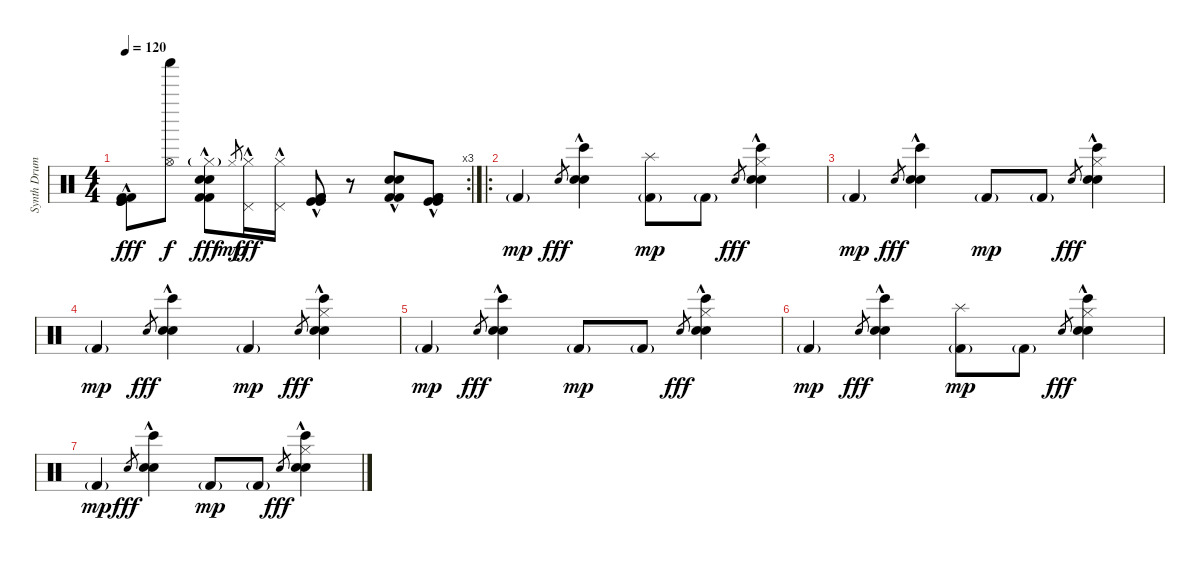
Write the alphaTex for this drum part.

\track ("Synth Drum" "Synth Drum") {instrument percussion}
\staff {score}
\articulation defaults
\rc 3
\ts (4 4)
\tempo 120
\clef neutral
\ks c
("Kick (hit)"{hac} "Kick (hit) 2"{hac} "Kick (hit)"{hac} "Kick (hit) 2"{hac}).8{dy fff} ("Shaker (hit)" "Hi-Hat (open)").8{dy f} ("Hi-Hat (closed)"{g} "Snare (hit) 2"{hac} "Electric Snare (hit)"{hac} "Kick (hit) 2"{hac} "Kick (hit) 2"{hac}).8{dy fff} "Hi-Hat (closed)"{h}.8{gr dy mp} ("Pedal Hi-Hat (hit)"{hac} "Hi-Hat (closed)"{hac}).16{dy fff} ("Pedal Hi-Hat (hit)"{hac} "Hi-Hat (closed)"{hac}).16 ("Kick (hit)"{hac} "Kick (hit)"{hac} "Kick (hit) 2"{hac} "Kick (hit) 2"{hac}).8 r.8 ("Snare (hit) 2"{hac} "Electric Snare (hit)"{hac} "Kick (hit) 2"{hac} "Kick (hit) 2"{hac}).8 ("Kick (hit)"{hac} "Kick (hit)"{hac} "Kick (hit) 2"{hac} "Kick (hit) 2"{hac}).8 |
\ro "Kick (hit) 2"{g}.4{dy mp} "Snare (hit)".8{gr dy fff}
("Electric Snare (hit)"{hac} "Bongo High (hit)"{hac} "Hand Clap (hit)"{hac}).4 ("Splash (hit)" "Kick (hit) 2"{g}).8{dy mp} "Kick (hit) 2"{g}.8 "Snare (hit)".8{gr dy fff} ("Hi-Hat (closed)" "Electric Snare (hit)"{hac} "Bongo High (hit)"{hac} "Hand Clap (hit)"{hac}).4 |
"Kick (hit) 2"{g}.4{dy mp} "Snare (hit)".8{gr dy fff} ("Electric Snare (hit)"{hac} "Bongo High (hit)"{hac} "Hand Clap (hit)"{hac}).4 "Kick (hit) 2"{g}.8{dy mp} "Kick (hit) 2"{g}.8 "Snare (hit)".8{gr dy fff} ("Hi-Hat (closed)" "Electric Snare (hit)"{hac} "Bongo High (hit)"{hac} "Hand Clap (hit)"{hac}).4 |
"Kick (hit) 2"{g}.4{dy mp} "Snare (hit)".8{gr dy fff} ("Electric Snare (hit)"{hac} "Bongo High (hit)"{hac} "Hand Clap (hit)"{hac}).4 "Kick (hit) 2"{g}.4{dy mp} "Snare (hit)".8{gr dy fff} ("Hi-Hat (closed)" "Electric Snare (hit)"{hac} "Bongo High (hit)"{hac} "Hand Clap (hit)"{hac}).4 |
"Kick (hit) 2"{g}.4{dy mp} "Snare (hit)".8{gr dy fff} ("Electric Snare (hit)"{hac} "Bongo High (hit)"{hac} "Hand Clap (hit)"{hac}).4 "Kick (hit) 2"{g}.8{dy mp} "Kick (hit) 2"{g}.8 "Snare (hit)".8{gr dy fff} ("Hi-Hat (closed)" "Electric Snare (hit)"{hac} "Bongo High (hit)"{hac} "Hand Clap (hit)"{hac}).4 |
"Kick (hit) 2"{g}.4{dy mp} "Snare (hit)".8{gr dy fff} ("Electric Snare (hit)"{hac} "Bongo High (hit)"{hac} "Hand Clap (hit)"{hac}).4 ("Splash (hit)" "Kick (hit) 2"{g}).8{dy mp} "Kick (hit) 2"{g}.8 "Snare (hit)".8{gr dy fff} ("Hi-Hat (closed)" "Electric Snare (hit)"{hac} "Bongo High (hit)"{hac} "Hand Clap (hit)"{hac}).4 |
"Kick (hit) 2"{g}.4{dy mp} "Snare (hit)".8{gr dy fff} ("Electric Snare (hit)"{hac} "Bongo High (hit)"{hac} "Hand Clap (hit)"{hac}).4 "Kick (hit) 2"{g}.8{dy mp} "Kick (hit) 2"{g}.8 "Snare (hit)".8{gr dy fff} ("Hi-Hat (closed)" "Electric Snare (hit)"{hac} "Bongo High (hit)"{hac} "Hand Clap (hit)"{hac}).4
